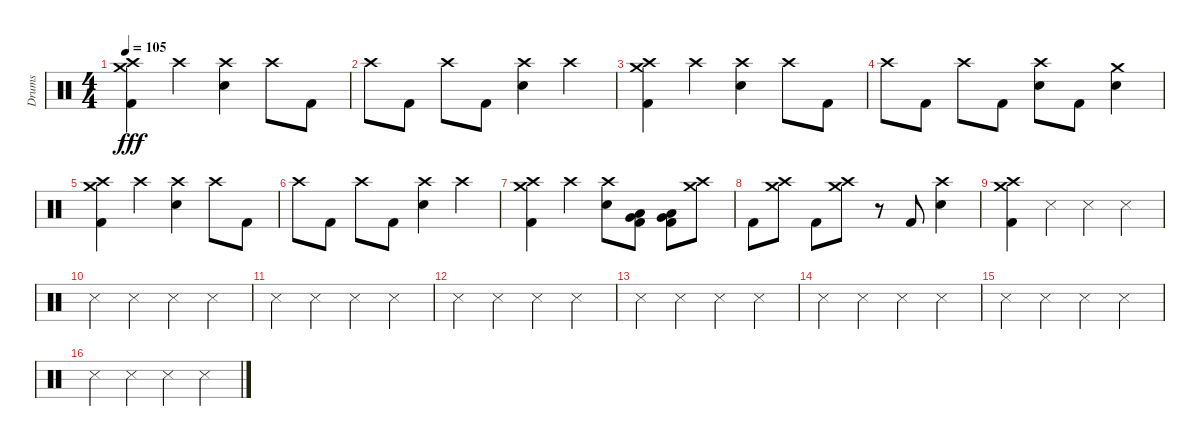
\track ("Drums" "Drums") {instrument percussion}
\staff {score}
\articulation defaults
\ts (4 4)
\tempo 105
\clef neutral
\ks c
("Crash high (hit)" "Crash medium (hit)" "Kick (hit) 2").4{dy fff} "Crash high (hit)".4 ("Crash high (hit)" "Electric Snare (hit)").4 "Crash high (hit)".8 "Kick (hit) 2".8 |
"Crash high (hit)".8 "Kick (hit) 2".8 "Crash high (hit)".8 "Kick (hit) 2".8 ("Crash high (hit)" "Electric Snare (hit)").4 "Crash high (hit)".4 |
("Crash high (hit)" "Crash medium (hit)" "Kick (hit) 2").4 "Crash high (hit)".4 ("Crash high (hit)" "Electric Snare (hit)").4 "Crash high (hit)".8 "Kick (hit) 2".8 |
"Crash high (hit)".8 "Kick (hit) 2".8 "Crash high (hit)".8 "Kick (hit) 2".8 ("Crash high (hit)" "Electric Snare (hit)").8 "Kick (hit) 2".8 ("Crash medium (hit)" "Electric Snare (hit)").4 |
("Crash high (hit)" "Crash medium (hit)" "Kick (hit) 2").4 "Crash high (hit)".4 ("Crash high (hit)" "Electric Snare (hit)").4 "Crash high (hit)".8 "Kick (hit) 2".8 |
"Crash high (hit)".8 "Kick (hit) 2".8 "Crash high (hit)".8 "Kick (hit) 2".8 ("Crash high (hit)" "Electric Snare (hit)").4 "Crash high (hit)".4 |
("Crash high (hit)" "Crash medium (hit)" "Kick (hit) 2").4 "Crash high (hit)".4 ("Crash high (hit)" "Electric Snare (hit)").8 ("Very Low Tom (hit)" "Low Floor Tom (hit)" "Kick (hit) 2").8 ("Very Low Tom (hit)" "Low Floor Tom (hit)" "Kick (hit) 2").8 ("Crash high (hit)" "Crash medium (hit)").8 |
"Kick (hit) 2".8 ("Crash high (hit)" "Crash medium (hit)").8 "Kick (hit) 2".8 ("Crash medium (hit)" "Crash high (hit)").8 r.8 "Kick (hit) 2".8 ("Crash high (hit)" "Electric Snare (hit)").4 |
("Crash medium (hit)" "Crash high (hit)" "Kick (hit) 2").4 "Snare (side stick) 3".4 "Snare (side stick) 3".4 "Snare (side stick) 3".4 |
"Snare (side stick) 3".4 "Snare (side stick) 3".4 "Snare (side stick) 3".4 "Snare (side stick) 3".4 |
"Snare (side stick) 3".4 "Snare (side stick) 3".4 "Snare (side stick) 3".4 "Snare (side stick) 3".4 |
"Snare (side stick) 3".4 "Snare (side stick) 3".4 "Snare (side stick) 3".4 "Snare (side stick) 3".4 |
"Snare (side stick) 3".4 "Snare (side stick) 3".4 "Snare (side stick) 3".4 "Snare (side stick) 3".4 |
"Snare (side stick) 3".4 "Snare (side stick) 3".4 "Snare (side stick) 3".4 "Snare (side stick) 3".4 |
"Snare (side stick) 3".4 "Snare (side stick) 3".4 "Snare (side stick) 3".4 "Snare (side stick) 3".4 |
"Snare (side stick) 3".4 "Snare (side stick) 3".4 "Snare (side stick) 3".4 "Snare (side stick) 3".4
